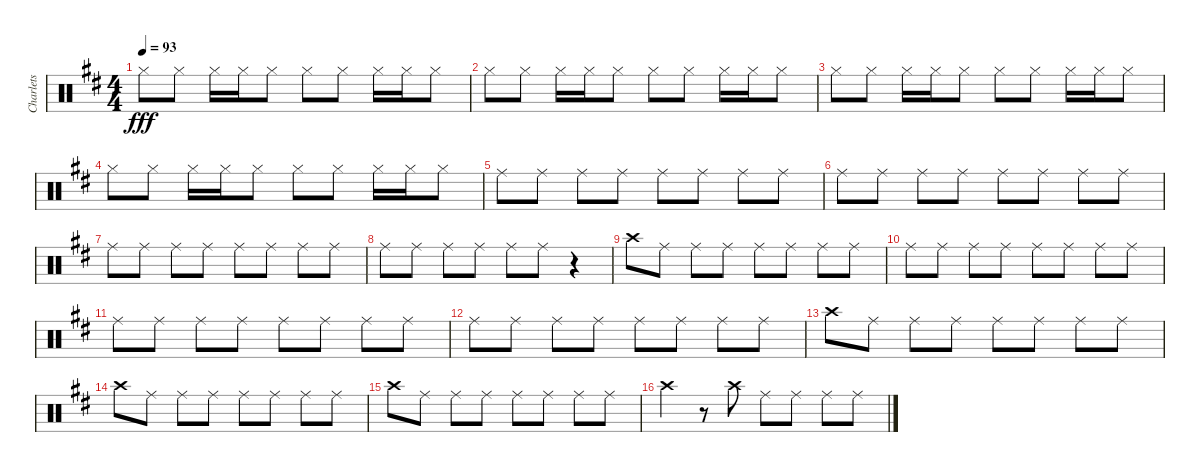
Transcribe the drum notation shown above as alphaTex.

\track ("Charlets" "Charlets") {instrument percussion}
\staff {score}
\articulation defaults
\ts (4 4)
\tempo 93
\clef neutral
\ks d "Hi-Hat (closed)".8{dy fff} "Hi-Hat (closed)".8 "Hi-Hat (closed)".16 "Hi-Hat (closed)".16 "Hi-Hat (closed)".8 "Hi-Hat (closed)".8 "Hi-Hat (closed)".8 "Hi-Hat (closed)".16 "Hi-Hat (closed)".16 "Hi-Hat (closed)".8
|
"Hi-Hat (closed)".8 "Hi-Hat (closed)".8 "Hi-Hat (closed)".16 "Hi-Hat (closed)".16 "Hi-Hat (closed)".8 "Hi-Hat (closed)".8 "Hi-Hat (closed)".8 "Hi-Hat (closed)".16 "Hi-Hat (closed)".16 "Hi-Hat (closed)".8 |
"Hi-Hat (closed)".8 "Hi-Hat (closed)".8 "Hi-Hat (closed)".16 "Hi-Hat (closed)".16 "Hi-Hat (closed)".8 "Hi-Hat (closed)".8 "Hi-Hat (closed)".8 "Hi-Hat (closed)".16 "Hi-Hat (closed)".16 "Hi-Hat (closed)".8 |
"Hi-Hat (closed)".8 "Hi-Hat (closed)".8 "Hi-Hat (closed)".16 "Hi-Hat (closed)".16 "Hi-Hat (closed)".8 "Hi-Hat (closed)".8 "Hi-Hat (closed)".8 "Hi-Hat (closed)".16 "Hi-Hat (closed)".16 "Hi-Hat (closed)".8 |
"Ride (middle)".8 "Ride (middle)".8 "Ride (middle)".8 "Ride (middle)".8 "Ride (middle)".8 "Ride (middle)".8 "Ride (middle)".8 "Ride (middle)".8 |
"Ride (middle)".8 "Ride (middle)".8 "Ride (middle)".8 "Ride (middle)".8 "Ride (middle)".8 "Ride (middle)".8 "Ride (middle)".8 "Ride (middle)".8 |
"Ride (middle)".8 "Ride (middle)".8 "Ride (middle)".8 "Ride (middle)".8 "Ride (middle)".8 "Ride (middle)".8 "Ride (middle)".8 "Ride (middle)".8 |
"Ride (middle)".8 "Ride (middle)".8 "Ride (middle)".8 "Ride (middle)".8 "Ride (middle)".8 "Ride (middle)".8 r.4 |
"Crash high (hit)".8 "Ride (middle)".8 "Ride (middle)".8 "Ride (middle)".8 "Ride (middle)".8 "Ride (middle)".8 "Ride (middle)".8 "Ride (middle)".8 |
"Ride (middle)".8 "Ride (middle)".8 "Ride (middle)".8 "Ride (middle)".8 "Ride (middle)".8 "Ride (middle)".8 "Ride (middle)".8 "Ride (middle)".8 |
"Ride (middle)".8 "Ride (middle)".8 "Ride (middle)".8 "Ride (middle)".8 "Ride (middle)".8 "Ride (middle)".8 "Ride (middle)".8 "Ride (middle)".8 |
"Ride (middle)".8 "Ride (middle)".8 "Ride (middle)".8 "Ride (middle)".8 "Ride (middle)".8 "Ride (middle)".8 "Ride (middle)".8 "Ride (middle)".8 |
"Crash high (hit)".8 "Ride (middle)".8 "Ride (middle)".8 "Ride (middle)".8 "Ride (middle)".8 "Ride (middle)".8 "Ride (middle)".8 "Ride (middle)".8 |
"Crash high (hit)".8 "Ride (middle)".8 "Ride (middle)".8 "Ride (middle)".8 "Ride (middle)".8 "Ride (middle)".8 "Ride (middle)".8 "Ride (middle)".8 |
"Crash high (hit)".8 "Ride (middle)".8 "Ride (middle)".8 "Ride (middle)".8 "Ride (middle)".8 "Ride (middle)".8 "Ride (middle)".8 "Ride (middle)".8 |
"Crash high (hit)".4 r.8 "Crash high (hit)".8 "Ride (middle)".8 "Ride (middle)".8 "Ride (middle)".8 "Ride (middle)".8
